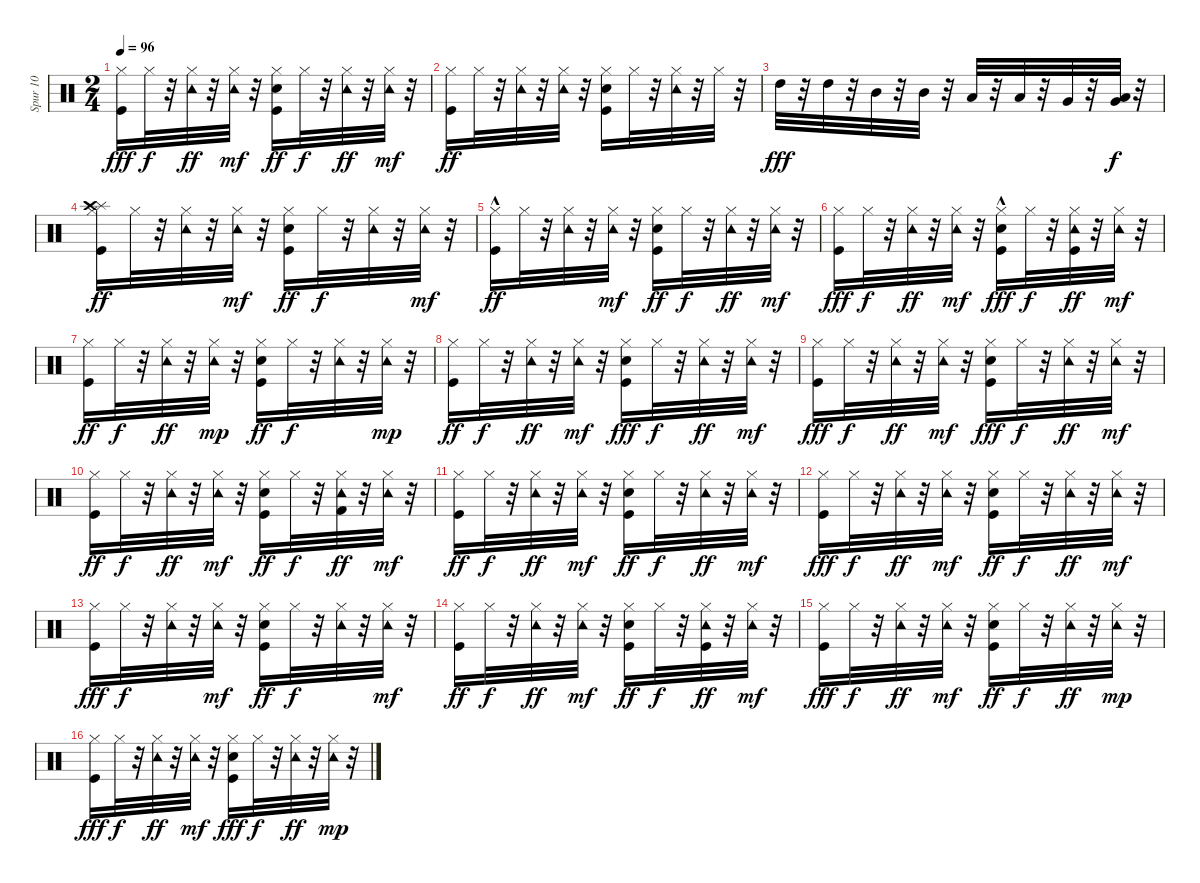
\track ("Spur 10" "Spur 10") {instrument percussion}
\staff {score}
\articulation defaults
\ts (2 4)
\tempo 96
\clef neutral
\ks c
("Kick (hit)" "Hi-Hat (closed)").16{dy fff} "Hi-Hat (closed)".32{dy f} r.32 ("Hi-Hat (closed)" "Tambourine (hit)").32{dy ff} r.32 ("Hi-Hat (closed)" "Tambourine (hit)").32{dy mf} r.32 ("Snare (hit) 2" "Kick (hit)" "Hi-Hat (closed)").16{dy ff} "Hi-Hat (closed)".32{dy f} r.32 ("Hi-Hat (closed)" "Tambourine (hit)").32{dy ff} r.32 ("Hi-Hat (closed)" "Tambourine (hit)").32{dy mf} r.32 |
("Kick (hit)" "Hi-Hat (closed)").16{dy ff} "Hi-Hat (closed)".32 r.32 ("Tambourine (hit)" "Hi-Hat (closed)").32 r.32 ("Tambourine (hit)" "Hi-Hat (closed)").32 r.32 ("Kick (hit)" "Snare (hit) 2" "Hi-Hat (closed)").16 "Hi-Hat (closed)".32 r.32 ("Tambourine (hit)" "Hi-Hat (closed)").32 r.32 "Hi-Hat (closed)".32 r.32 |
"High Tom (hit)".32{dy fff} r.32 "High Tom (hit)".32 r.32 "Mid Tom (hit)".32 r.32 "Mid Tom (hit)".32 r.32 "Low Tom (hit)".32 r.32 "Low Tom (hit)".32 r.32 "Very Low Tom (hit)".32 r.32 ("Very Low Tom (hit)" "Low Floor Tom (hit)").32{dy f} r.32 |
("Kick (hit)" "Hi-Hat (closed)" "Splash (hit)" "Crash high (hit)").16{dy ff} "Hi-Hat (closed)".32 r.32 ("Hi-Hat (closed)" "Tambourine (hit)").32 r.32 ("Hi-Hat (closed)" "Tambourine (hit)").32{dy mf} r.32 ("Kick (hit)" "Snare (hit) 2" "Hi-Hat (closed)").16{dy ff} "Hi-Hat (closed)".32{dy f} r.32 ("Hi-Hat (closed)" "Tambourine (hit)").32 r.32 ("Hi-Hat (closed)" "Tambourine (hit)").32{dy mf} r.32 |
("Kick (hit)"{hac} "Hi-Hat (closed)").16{dy ff} "Hi-Hat (closed)".32 r.32 ("Hi-Hat (closed)" "Tambourine (hit)").32 r.32 ("Hi-Hat (closed)" "Tambourine (hit)").32{dy mf} r.32 ("Kick (hit)" "Snare (hit) 2" "Hi-Hat (closed)").16{dy ff} "Hi-Hat (closed)".32{dy f} r.32 ("Hi-Hat (closed)" "Tambourine (hit)").32{dy ff} r.32 ("Hi-Hat (closed)" "Tambourine (hit)").32{dy mf} r.32 |
("Kick (hit)" "Hi-Hat (closed)").16{dy fff} "Hi-Hat (closed)".32{dy f} r.32 ("Hi-Hat (closed)" "Tambourine (hit)").32{dy ff} r.32 ("Hi-Hat (closed)" "Tambourine (hit)").32{dy mf} r.32 ("Snare (hit) 2"{hac} "Kick (hit)" "Hi-Hat (closed)").16{dy fff} "Hi-Hat (closed)".32{dy f} r.32 ("Kick (hit)" "Hi-Hat (closed)" "Tambourine (hit)").32{dy ff} r.32 ("Hi-Hat (closed)" "Tambourine (hit)").32{dy mf} r.32 |
("Kick (hit)" "Hi-Hat (closed)").16{dy ff} "Hi-Hat (closed)".32{dy f} r.32 ("Hi-Hat (closed)" "Tambourine (hit)").32{dy ff} r.32 ("Hi-Hat (closed)" "Tambourine (hit)").32{dy mp} r.32 ("Kick (hit)" "Snare (hit) 2" "Hi-Hat (closed)").16{dy ff} "Hi-Hat (closed)".32{dy f} r.32 ("Hi-Hat (closed)" "Tambourine (hit)").32 r.32 ("Hi-Hat (closed)" "Tambourine (hit)").32{dy mp} r.32 |
("Kick (hit)" "Hi-Hat (closed)").16{dy ff} "Hi-Hat (closed)".32{dy f} r.32 ("Hi-Hat (closed)" "Tambourine (hit)").32{dy ff} r.32 ("Hi-Hat (closed)" "Tambourine (hit)").32{dy mf} r.32 ("Snare (hit) 2" "Kick (hit)" "Hi-Hat (closed)").16{dy fff} "Hi-Hat (closed)".32{dy f} r.32 ("Hi-Hat (closed)" "Tambourine (hit)").32{dy ff} r.32 ("Hi-Hat (closed)" "Tambourine (hit)").32{dy mf} r.32 |
("Kick (hit)" "Hi-Hat (closed)").16{dy fff} "Hi-Hat (closed)".32{dy f} r.32 ("Hi-Hat (closed)" "Tambourine (hit)").32{dy ff} r.32 ("Hi-Hat (closed)" "Tambourine (hit)").32{dy mf} r.32 ("Snare (hit) 2" "Kick (hit)" "Hi-Hat (closed)").16{dy fff} "Hi-Hat (closed)".32{dy f} r.32 ("Hi-Hat (closed)" "Tambourine (hit)").32{dy ff} r.32 ("Hi-Hat (closed)" "Tambourine (hit)").32{dy mf} r.32 |
("Kick (hit)" "Hi-Hat (closed)").16{dy ff} "Hi-Hat (closed)".32{dy f} r.32 ("Hi-Hat (closed)" "Tambourine (hit)").32{dy ff} r.32 ("Hi-Hat (closed)" "Tambourine (hit)").32{dy mf} r.32 ("Snare (hit) 2" "Kick (hit)" "Hi-Hat (closed)").16{dy ff} "Hi-Hat (closed)".32{dy f} r.32 ("Kick (hit) 2" "Hi-Hat (closed)" "Tambourine (hit)").32{dy ff} r.32 ("Hi-Hat (closed)" "Tambourine (hit)").32{dy mf} r.32 |
("Kick (hit)" "Hi-Hat (closed)").16{dy ff} "Hi-Hat (closed)".32{dy f} r.32 ("Hi-Hat (closed)" "Tambourine (hit)").32{dy ff} r.32 ("Hi-Hat (closed)" "Tambourine (hit)").32{dy mf} r.32 ("Snare (hit) 2" "Kick (hit)" "Hi-Hat (closed)").16{dy ff} "Hi-Hat (closed)".32{dy f} r.32 ("Hi-Hat (closed)" "Tambourine (hit)").32{dy ff} r.32 ("Hi-Hat (closed)" "Tambourine (hit)").32{dy mf} r.32 |
("Kick (hit)" "Hi-Hat (closed)").16{dy fff} "Hi-Hat (closed)".32{dy f} r.32 ("Hi-Hat (closed)" "Tambourine (hit)").32{dy ff} r.32 ("Hi-Hat (closed)" "Tambourine (hit)").32{dy mf} r.32 ("Kick (hit)" "Snare (hit) 2" "Hi-Hat (closed)").16{dy ff} "Hi-Hat (closed)".32{dy f} r.32 ("Hi-Hat (closed)" "Tambourine (hit)").32{dy ff} r.32 ("Hi-Hat (closed)" "Tambourine (hit)").32{dy mf} r.32 |
("Kick (hit)" "Hi-Hat (closed)").16{dy fff} "Hi-Hat (closed)".32{dy f} r.32 ("Hi-Hat (closed)" "Tambourine (hit)").32 r.32 ("Hi-Hat (closed)" "Tambourine (hit)").32{dy mf} r.32 ("Snare (hit) 2" "Kick (hit)" "Hi-Hat (closed)").16{dy ff} "Hi-Hat (closed)".32{dy f} r.32 ("Hi-Hat (closed)" "Tambourine (hit)").32 r.32 ("Hi-Hat (closed)" "Tambourine (hit)").32{dy mf} r.32 |
("Kick (hit)" "Hi-Hat (closed)").16{dy ff} "Hi-Hat (closed)".32{dy f} r.32 ("Hi-Hat (closed)" "Tambourine (hit)").32{dy ff} r.32 ("Hi-Hat (closed)" "Tambourine (hit)").32{dy mf} r.32 ("Snare (hit) 2" "Kick (hit)" "Hi-Hat (closed)").16{dy ff} "Hi-Hat (closed)".32{dy f} r.32 ("Kick (hit)" "Hi-Hat (closed)" "Tambourine (hit)").32{dy ff} r.32 ("Hi-Hat (closed)" "Tambourine (hit)").32{dy mf} r.32 |
("Kick (hit)" "Hi-Hat (closed)").16{dy fff} "Hi-Hat (closed)".32{dy f} r.32 ("Hi-Hat (closed)" "Tambourine (hit)").32{dy ff} r.32 ("Hi-Hat (closed)" "Tambourine (hit)").32{dy mf} r.32 ("Snare (hit) 2" "Kick (hit)" "Hi-Hat (closed)").16{dy ff} "Hi-Hat (closed)".32{dy f} r.32 ("Hi-Hat (closed)" "Tambourine (hit)").32{dy ff} r.32 ("Hi-Hat (closed)" "Tambourine (hit)").32{dy mp} r.32 |
("Kick (hit)" "Hi-Hat (closed)").16{dy fff} "Hi-Hat (closed)".32{dy f} r.32 ("Hi-Hat (closed)" "Tambourine (hit)").32{dy ff} r.32 ("Hi-Hat (closed)" "Tambourine (hit)").32{dy mf} r.32 ("Snare (hit) 2" "Kick (hit)" "Hi-Hat (closed)").16{dy fff} "Hi-Hat (closed)".32{dy f} r.32 ("Hi-Hat (closed)" "Tambourine (hit)").32{dy ff} r.32 ("Hi-Hat (closed)" "Tambourine (hit)").32{dy mp} r.32
